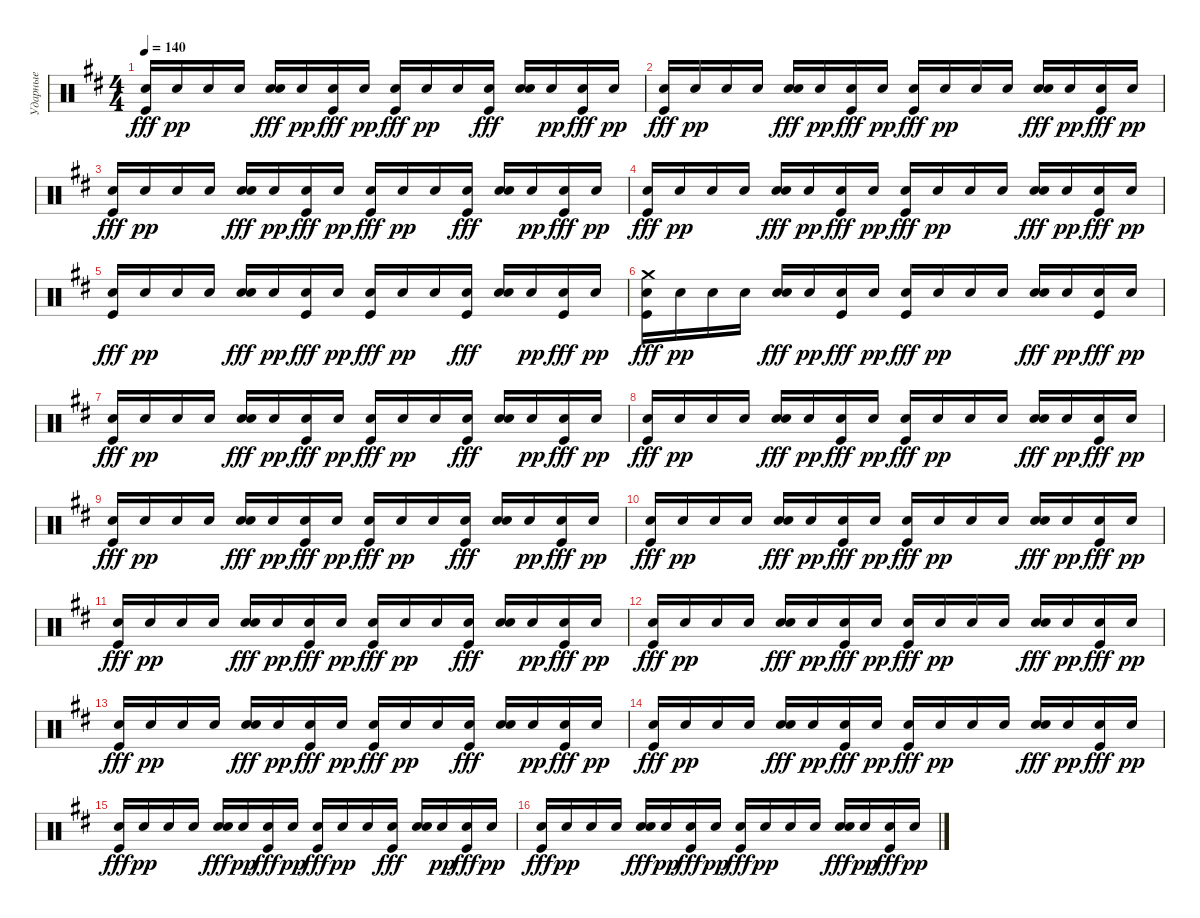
\track ("Ударные" "Ударные") {instrument percussion}
\staff {score}
\articulation defaults
\ts (4 4)
\tempo 140
\clef neutral
\ks d
("Electric Snare (hit)" "Kick (hit)").16{dy fff} "Electric Snare (hit)".16{dy pp} "Electric Snare (hit)".16 "Electric Snare (hit)".16 ("Electric Snare (hit)" "Electric Snare (hit)").16{dy fff} "Electric Snare (hit)".16{dy pp} ("Electric Snare (hit)" "Kick (hit)").16{dy fff} "Electric Snare (hit)".16{dy pp} ("Electric Snare (hit)" "Kick (hit)").16{dy fff} "Electric Snare (hit)".16{dy pp} "Electric Snare (hit)".16 ("Electric Snare (hit)" "Kick (hit)").16{dy fff} ("Electric Snare (hit)" "Electric Snare (hit)").16 "Electric Snare (hit)".16{dy pp} ("Electric Snare (hit)" "Kick (hit)").16{dy fff} "Electric Snare (hit)".16{dy pp} |
("Electric Snare (hit)" "Kick (hit)").16{dy fff} "Electric Snare (hit)".16{dy pp} "Electric Snare (hit)".16 "Electric Snare (hit)".16 ("Electric Snare (hit)" "Electric Snare (hit)").16{dy fff} "Electric Snare (hit)".16{dy pp} ("Electric Snare (hit)" "Kick (hit)").16{dy fff} "Electric Snare (hit)".16{dy pp} ("Electric Snare (hit)" "Kick (hit)").16{dy fff} "Electric Snare (hit)".16{dy pp} "Electric Snare (hit)".16 "Electric Snare (hit)".16 ("Electric Snare (hit)" "Electric Snare (hit)").16{dy fff} "Electric Snare (hit)".16{dy pp} ("Electric Snare (hit)" "Kick (hit)").16{dy fff} "Electric Snare (hit)".16{dy pp} |
("Electric Snare (hit)" "Kick (hit)").16{dy fff} "Electric Snare (hit)".16{dy pp} "Electric Snare (hit)".16 "Electric Snare (hit)".16 ("Electric Snare (hit)" "Electric Snare (hit)").16{dy fff} "Electric Snare (hit)".16{dy pp} ("Electric Snare (hit)" "Kick (hit)").16{dy fff} "Electric Snare (hit)".16{dy pp} ("Electric Snare (hit)" "Kick (hit)").16{dy fff} "Electric Snare (hit)".16{dy pp} "Electric Snare (hit)".16 ("Electric Snare (hit)" "Kick (hit)").16{dy fff} ("Electric Snare (hit)" "Electric Snare (hit)").16 "Electric Snare (hit)".16{dy pp} ("Electric Snare (hit)" "Kick (hit)").16{dy fff} "Electric Snare (hit)".16{dy pp} |
("Electric Snare (hit)" "Kick (hit)").16{dy fff} "Electric Snare (hit)".16{dy pp} "Electric Snare (hit)".16 "Electric Snare (hit)".16 ("Electric Snare (hit)" "Electric Snare (hit)").16{dy fff} "Electric Snare (hit)".16{dy pp} ("Electric Snare (hit)" "Kick (hit)").16{dy fff} "Electric Snare (hit)".16{dy pp} ("Electric Snare (hit)" "Kick (hit)").16{dy fff} "Electric Snare (hit)".16{dy pp} "Electric Snare (hit)".16 "Electric Snare (hit)".16 ("Electric Snare (hit)" "Electric Snare (hit)").16{dy fff} "Electric Snare (hit)".16{dy pp} ("Electric Snare (hit)" "Kick (hit)").16{dy fff} "Electric Snare (hit)".16{dy pp} |
("Electric Snare (hit)" "Kick (hit)").16{dy fff} "Electric Snare (hit)".16{dy pp} "Electric Snare (hit)".16 "Electric Snare (hit)".16 ("Electric Snare (hit)" "Electric Snare (hit)").16{dy fff} "Electric Snare (hit)".16{dy pp} ("Electric Snare (hit)" "Kick (hit)").16{dy fff} "Electric Snare (hit)".16{dy pp} ("Electric Snare (hit)" "Kick (hit)").16{dy fff} "Electric Snare (hit)".16{dy pp} "Electric Snare (hit)".16 ("Electric Snare (hit)" "Kick (hit)").16{dy fff} ("Electric Snare (hit)" "Electric Snare (hit)").16 "Electric Snare (hit)".16{dy pp} ("Electric Snare (hit)" "Kick (hit)").16{dy fff} "Electric Snare (hit)".16{dy pp} |
("Crash medium (hit)" "Electric Snare (hit)" "Kick (hit)").16{dy fff} "Electric Snare (hit)".16{dy pp} "Electric Snare (hit)".16 "Electric Snare (hit)".16 ("Electric Snare (hit)" "Electric Snare (hit)").16{dy fff} "Electric Snare (hit)".16{dy pp} ("Electric Snare (hit)" "Kick (hit)").16{dy fff} "Electric Snare (hit)".16{dy pp} ("Electric Snare (hit)" "Kick (hit)").16{dy fff} "Electric Snare (hit)".16{dy pp} "Electric Snare (hit)".16 "Electric Snare (hit)".16 ("Electric Snare (hit)" "Electric Snare (hit)").16{dy fff} "Electric Snare (hit)".16{dy pp} ("Electric Snare (hit)" "Kick (hit)").16{dy fff} "Electric Snare (hit)".16{dy pp} |
("Electric Snare (hit)" "Kick (hit)").16{dy fff} "Electric Snare (hit)".16{dy pp} "Electric Snare (hit)".16 "Electric Snare (hit)".16 ("Electric Snare (hit)" "Electric Snare (hit)").16{dy fff} "Electric Snare (hit)".16{dy pp} ("Electric Snare (hit)" "Kick (hit)").16{dy fff} "Electric Snare (hit)".16{dy pp} ("Electric Snare (hit)" "Kick (hit)").16{dy fff} "Electric Snare (hit)".16{dy pp} "Electric Snare (hit)".16 ("Electric Snare (hit)" "Kick (hit)").16{dy fff} ("Electric Snare (hit)" "Electric Snare (hit)").16 "Electric Snare (hit)".16{dy pp} ("Electric Snare (hit)" "Kick (hit)").16{dy fff} "Electric Snare (hit)".16{dy pp} |
("Electric Snare (hit)" "Kick (hit)").16{dy fff} "Electric Snare (hit)".16{dy pp} "Electric Snare (hit)".16 "Electric Snare (hit)".16 ("Electric Snare (hit)" "Electric Snare (hit)").16{dy fff} "Electric Snare (hit)".16{dy pp} ("Electric Snare (hit)" "Kick (hit)").16{dy fff} "Electric Snare (hit)".16{dy pp} ("Electric Snare (hit)" "Kick (hit)").16{dy fff} "Electric Snare (hit)".16{dy pp} "Electric Snare (hit)".16 "Electric Snare (hit)".16 ("Electric Snare (hit)" "Electric Snare (hit)").16{dy fff} "Electric Snare (hit)".16{dy pp} ("Electric Snare (hit)" "Kick (hit)").16{dy fff} "Electric Snare (hit)".16{dy pp} |
("Electric Snare (hit)" "Kick (hit)").16{dy fff} "Electric Snare (hit)".16{dy pp} "Electric Snare (hit)".16 "Electric Snare (hit)".16 ("Electric Snare (hit)" "Electric Snare (hit)").16{dy fff} "Electric Snare (hit)".16{dy pp} ("Electric Snare (hit)" "Kick (hit)").16{dy fff} "Electric Snare (hit)".16{dy pp} ("Electric Snare (hit)" "Kick (hit)").16{dy fff} "Electric Snare (hit)".16{dy pp} "Electric Snare (hit)".16 ("Electric Snare (hit)" "Kick (hit)").16{dy fff} ("Electric Snare (hit)" "Electric Snare (hit)").16 "Electric Snare (hit)".16{dy pp} ("Electric Snare (hit)" "Kick (hit)").16{dy fff} "Electric Snare (hit)".16{dy pp} |
("Electric Snare (hit)" "Kick (hit)").16{dy fff} "Electric Snare (hit)".16{dy pp} "Electric Snare (hit)".16 "Electric Snare (hit)".16 ("Electric Snare (hit)" "Electric Snare (hit)").16{dy fff} "Electric Snare (hit)".16{dy pp} ("Electric Snare (hit)" "Kick (hit)").16{dy fff} "Electric Snare (hit)".16{dy pp} ("Electric Snare (hit)" "Kick (hit)").16{dy fff} "Electric Snare (hit)".16{dy pp} "Electric Snare (hit)".16 "Electric Snare (hit)".16 ("Electric Snare (hit)" "Electric Snare (hit)").16{dy fff} "Electric Snare (hit)".16{dy pp} ("Electric Snare (hit)" "Kick (hit)").16{dy fff} "Electric Snare (hit)".16{dy pp} |
("Electric Snare (hit)" "Kick (hit)").16{dy fff} "Electric Snare (hit)".16{dy pp} "Electric Snare (hit)".16 "Electric Snare (hit)".16 ("Electric Snare (hit)" "Electric Snare (hit)").16{dy fff} "Electric Snare (hit)".16{dy pp} ("Electric Snare (hit)" "Kick (hit)").16{dy fff} "Electric Snare (hit)".16{dy pp} ("Electric Snare (hit)" "Kick (hit)").16{dy fff} "Electric Snare (hit)".16{dy pp} "Electric Snare (hit)".16 ("Electric Snare (hit)" "Kick (hit)").16{dy fff} ("Electric Snare (hit)" "Electric Snare (hit)").16 "Electric Snare (hit)".16{dy pp} ("Electric Snare (hit)" "Kick (hit)").16{dy fff} "Electric Snare (hit)".16{dy pp} |
("Electric Snare (hit)" "Kick (hit)").16{dy fff} "Electric Snare (hit)".16{dy pp} "Electric Snare (hit)".16 "Electric Snare (hit)".16 ("Electric Snare (hit)" "Electric Snare (hit)").16{dy fff} "Electric Snare (hit)".16{dy pp} ("Electric Snare (hit)" "Kick (hit)").16{dy fff} "Electric Snare (hit)".16{dy pp} ("Electric Snare (hit)" "Kick (hit)").16{dy fff} "Electric Snare (hit)".16{dy pp} "Electric Snare (hit)".16 "Electric Snare (hit)".16 ("Electric Snare (hit)" "Electric Snare (hit)").16{dy fff} "Electric Snare (hit)".16{dy pp} ("Electric Snare (hit)" "Kick (hit)").16{dy fff} "Electric Snare (hit)".16{dy pp} |
("Electric Snare (hit)" "Kick (hit)").16{dy fff} "Electric Snare (hit)".16{dy pp} "Electric Snare (hit)".16 "Electric Snare (hit)".16 ("Electric Snare (hit)" "Electric Snare (hit)").16{dy fff} "Electric Snare (hit)".16{dy pp} ("Electric Snare (hit)" "Kick (hit)").16{dy fff} "Electric Snare (hit)".16{dy pp} ("Electric Snare (hit)" "Kick (hit)").16{dy fff} "Electric Snare (hit)".16{dy pp} "Electric Snare (hit)".16 ("Electric Snare (hit)" "Kick (hit)").16{dy fff} ("Electric Snare (hit)" "Electric Snare (hit)").16 "Electric Snare (hit)".16{dy pp} ("Electric Snare (hit)" "Kick (hit)").16{dy fff} "Electric Snare (hit)".16{dy pp} |
("Electric Snare (hit)" "Kick (hit)").16{dy fff} "Electric Snare (hit)".16{dy pp} "Electric Snare (hit)".16 "Electric Snare (hit)".16 ("Electric Snare (hit)" "Electric Snare (hit)").16{dy fff} "Electric Snare (hit)".16{dy pp} ("Electric Snare (hit)" "Kick (hit)").16{dy fff} "Electric Snare (hit)".16{dy pp} ("Electric Snare (hit)" "Kick (hit)").16{dy fff} "Electric Snare (hit)".16{dy pp} "Electric Snare (hit)".16 "Electric Snare (hit)".16 ("Electric Snare (hit)" "Electric Snare (hit)").16{dy fff} "Electric Snare (hit)".16{dy pp} ("Electric Snare (hit)" "Kick (hit)").16{dy fff} "Electric Snare (hit)".16{dy pp} |
("Electric Snare (hit)" "Kick (hit)").16{dy fff} "Electric Snare (hit)".16{dy pp} "Electric Snare (hit)".16 "Electric Snare (hit)".16 ("Electric Snare (hit)" "Electric Snare (hit)").16{dy fff} "Electric Snare (hit)".16{dy pp} ("Electric Snare (hit)" "Kick (hit)").16{dy fff} "Electric Snare (hit)".16{dy pp} ("Electric Snare (hit)" "Kick (hit)").16{dy fff} "Electric Snare (hit)".16{dy pp} "Electric Snare (hit)".16 ("Electric Snare (hit)" "Kick (hit)").16{dy fff} ("Electric Snare (hit)" "Electric Snare (hit)").16 "Electric Snare (hit)".16{dy pp} ("Electric Snare (hit)" "Kick (hit)").16{dy fff} "Electric Snare (hit)".16{dy pp} |
("Electric Snare (hit)" "Kick (hit)").16{dy fff} "Electric Snare (hit)".16{dy pp} "Electric Snare (hit)".16 "Electric Snare (hit)".16 ("Electric Snare (hit)" "Electric Snare (hit)").16{dy fff} "Electric Snare (hit)".16{dy pp} ("Electric Snare (hit)" "Kick (hit)").16{dy fff} "Electric Snare (hit)".16{dy pp} ("Electric Snare (hit)" "Kick (hit)").16{dy fff} "Electric Snare (hit)".16{dy pp} "Electric Snare (hit)".16 "Electric Snare (hit)".16 ("Electric Snare (hit)" "Electric Snare (hit)").16{dy fff} "Electric Snare (hit)".16{dy pp} ("Electric Snare (hit)" "Kick (hit)").16{dy fff} "Electric Snare (hit)".16{dy pp}
